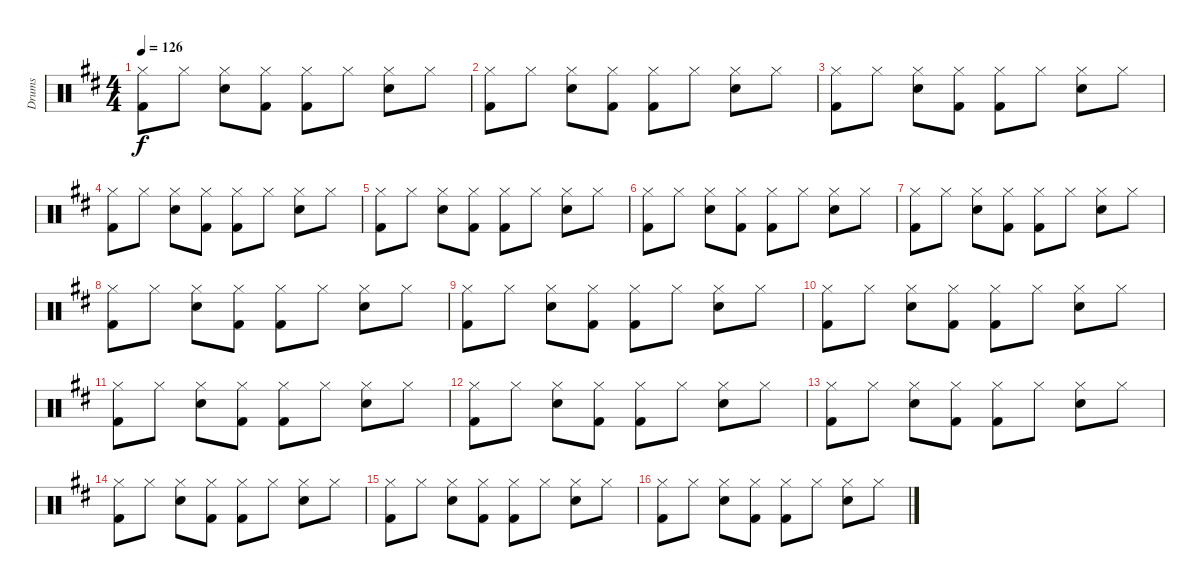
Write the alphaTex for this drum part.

\track ("Drums" "Drums") {instrument percussion}
\staff {score}
\articulation defaults
\ts (4 4)
\tempo 126
\clef neutral
\ks d
("Kick (hit) 2" "Hi-Hat (closed)").8{dy f} "Hi-Hat (closed)".8 ("Snare (hit) 2" "Hi-Hat (closed)").8 ("Kick (hit) 2" "Hi-Hat (closed)").8 ("Kick (hit) 2" "Hi-Hat (closed)").8 "Hi-Hat (closed)".8 ("Snare (hit) 2" "Hi-Hat (closed)").8 "Hi-Hat (closed)".8 |
("Kick (hit) 2" "Hi-Hat (closed)").8 "Hi-Hat (closed)".8 ("Snare (hit) 2" "Hi-Hat (closed)").8 ("Kick (hit) 2" "Hi-Hat (closed)").8 ("Kick (hit) 2" "Hi-Hat (closed)").8 "Hi-Hat (closed)".8 ("Snare (hit) 2" "Hi-Hat (closed)").8 "Hi-Hat (closed)".8 |
("Kick (hit) 2" "Hi-Hat (closed)").8 "Hi-Hat (closed)".8 ("Snare (hit) 2" "Hi-Hat (closed)").8 ("Kick (hit) 2" "Hi-Hat (closed)").8 ("Kick (hit) 2" "Hi-Hat (closed)").8 "Hi-Hat (closed)".8 ("Snare (hit) 2" "Hi-Hat (closed)").8 "Hi-Hat (closed)".8 |
("Kick (hit) 2" "Hi-Hat (closed)").8 "Hi-Hat (closed)".8 ("Snare (hit) 2" "Hi-Hat (closed)").8 ("Kick (hit) 2" "Hi-Hat (closed)").8 ("Kick (hit) 2" "Hi-Hat (closed)").8 "Hi-Hat (closed)".8 ("Snare (hit) 2" "Hi-Hat (closed)").8 "Hi-Hat (closed)".8 |
("Kick (hit) 2" "Hi-Hat (closed)").8 "Hi-Hat (closed)".8 ("Snare (hit) 2" "Hi-Hat (closed)").8 ("Kick (hit) 2" "Hi-Hat (closed)").8 ("Kick (hit) 2" "Hi-Hat (closed)").8 "Hi-Hat (closed)".8 ("Snare (hit) 2" "Hi-Hat (closed)").8 "Hi-Hat (closed)".8 |
("Kick (hit) 2" "Hi-Hat (closed)").8 "Hi-Hat (closed)".8 ("Snare (hit) 2" "Hi-Hat (closed)").8 ("Kick (hit) 2" "Hi-Hat (closed)").8 ("Kick (hit) 2" "Hi-Hat (closed)").8 "Hi-Hat (closed)".8 ("Snare (hit) 2" "Hi-Hat (closed)").8 "Hi-Hat (closed)".8 |
("Kick (hit) 2" "Hi-Hat (closed)").8 "Hi-Hat (closed)".8 ("Snare (hit) 2" "Hi-Hat (closed)").8 ("Kick (hit) 2" "Hi-Hat (closed)").8 ("Kick (hit) 2" "Hi-Hat (closed)").8 "Hi-Hat (closed)".8 ("Snare (hit) 2" "Hi-Hat (closed)").8 "Hi-Hat (closed)".8 |
("Kick (hit) 2" "Hi-Hat (closed)").8 "Hi-Hat (closed)".8 ("Snare (hit) 2" "Hi-Hat (closed)").8 ("Kick (hit) 2" "Hi-Hat (closed)").8 ("Kick (hit) 2" "Hi-Hat (closed)").8 "Hi-Hat (closed)".8 ("Snare (hit) 2" "Hi-Hat (closed)").8 "Hi-Hat (closed)".8 |
("Kick (hit) 2" "Hi-Hat (closed)").8 "Hi-Hat (closed)".8 ("Snare (hit) 2" "Hi-Hat (closed)").8 ("Kick (hit) 2" "Hi-Hat (closed)").8 ("Kick (hit) 2" "Hi-Hat (closed)").8 "Hi-Hat (closed)".8 ("Snare (hit) 2" "Hi-Hat (closed)").8 "Hi-Hat (closed)".8 |
("Kick (hit) 2" "Hi-Hat (closed)").8 "Hi-Hat (closed)".8 ("Snare (hit) 2" "Hi-Hat (closed)").8 ("Kick (hit) 2" "Hi-Hat (closed)").8 ("Kick (hit) 2" "Hi-Hat (closed)").8 "Hi-Hat (closed)".8 ("Snare (hit) 2" "Hi-Hat (closed)").8 "Hi-Hat (closed)".8 |
("Kick (hit) 2" "Hi-Hat (closed)").8 "Hi-Hat (closed)".8 ("Snare (hit) 2" "Hi-Hat (closed)").8 ("Kick (hit) 2" "Hi-Hat (closed)").8 ("Kick (hit) 2" "Hi-Hat (closed)").8 "Hi-Hat (closed)".8 ("Snare (hit) 2" "Hi-Hat (closed)").8 "Hi-Hat (closed)".8 |
("Kick (hit) 2" "Hi-Hat (closed)").8 "Hi-Hat (closed)".8 ("Snare (hit) 2" "Hi-Hat (closed)").8 ("Kick (hit) 2" "Hi-Hat (closed)").8 ("Kick (hit) 2" "Hi-Hat (closed)").8 "Hi-Hat (closed)".8 ("Snare (hit) 2" "Hi-Hat (closed)").8 "Hi-Hat (closed)".8 |
("Kick (hit) 2" "Hi-Hat (closed)").8 "Hi-Hat (closed)".8 ("Snare (hit) 2" "Hi-Hat (closed)").8 ("Kick (hit) 2" "Hi-Hat (closed)").8 ("Kick (hit) 2" "Hi-Hat (closed)").8 "Hi-Hat (closed)".8 ("Snare (hit) 2" "Hi-Hat (closed)").8 "Hi-Hat (closed)".8 |
("Kick (hit) 2" "Hi-Hat (closed)").8 "Hi-Hat (closed)".8 ("Snare (hit) 2" "Hi-Hat (closed)").8 ("Kick (hit) 2" "Hi-Hat (closed)").8 ("Kick (hit) 2" "Hi-Hat (closed)").8 "Hi-Hat (closed)".8 ("Snare (hit) 2" "Hi-Hat (closed)").8 "Hi-Hat (closed)".8 |
("Kick (hit) 2" "Hi-Hat (closed)").8 "Hi-Hat (closed)".8 ("Snare (hit) 2" "Hi-Hat (closed)").8 ("Kick (hit) 2" "Hi-Hat (closed)").8 ("Kick (hit) 2" "Hi-Hat (closed)").8 "Hi-Hat (closed)".8 ("Snare (hit) 2" "Hi-Hat (closed)").8 "Hi-Hat (closed)".8 |
("Kick (hit) 2" "Hi-Hat (closed)").8 "Hi-Hat (closed)".8 ("Snare (hit) 2" "Hi-Hat (closed)").8 ("Kick (hit) 2" "Hi-Hat (closed)").8 ("Kick (hit) 2" "Hi-Hat (closed)").8 "Hi-Hat (closed)".8 ("Snare (hit) 2" "Hi-Hat (closed)").8 "Hi-Hat (closed)".8
